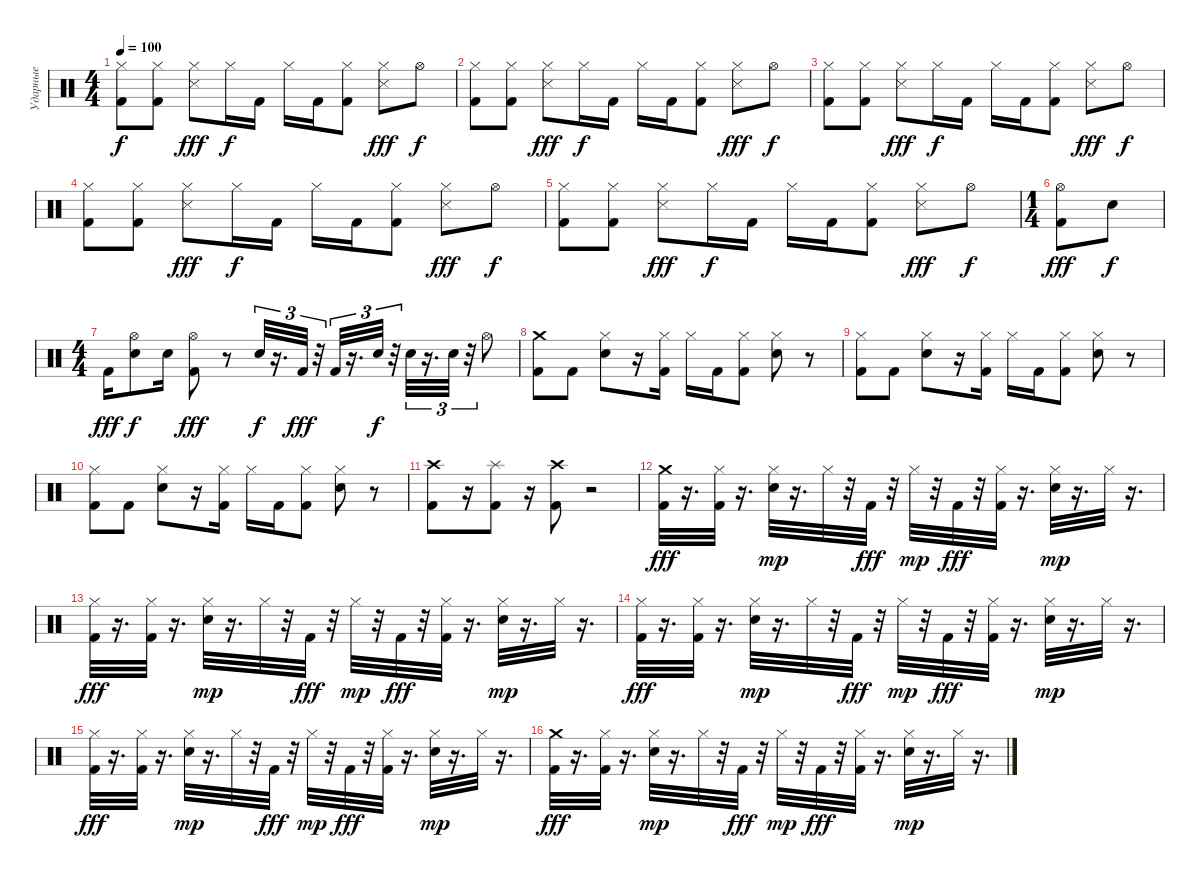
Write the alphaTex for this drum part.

\track ("Ударные" "Ударные") {instrument percussion}
\staff {score}
\articulation defaults
\ts (4 4)
\tempo 100
\clef neutral
\ks c
("Hi-Hat (closed)" "Kick (hit) 2").8{dy f} ("Hi-Hat (closed)" "Kick (hit) 2").8 ("Hi-Hat (closed)" "Snare (side stick) 3").8{dy fff} "Hi-Hat (closed)".16{dy f} "Kick (hit) 2".16 "Hi-Hat (closed)".16 "Kick (hit) 2".16 ("Hi-Hat (closed)" "Kick (hit) 2").8 ("Hi-Hat (closed)" "Snare (side stick) 3").8{dy fff} "Hi-Hat (open)".8{dy f} |
("Hi-Hat (closed)" "Kick (hit) 2").8 ("Hi-Hat (closed)" "Kick (hit) 2").8 ("Hi-Hat (closed)" "Snare (side stick) 3").8{dy fff} "Hi-Hat (closed)".16{dy f} "Kick (hit) 2".16 "Hi-Hat (closed)".16 "Kick (hit) 2".16 ("Hi-Hat (closed)" "Kick (hit) 2").8 ("Hi-Hat (closed)" "Snare (side stick) 3").8{dy fff} "Hi-Hat (open)".8{dy f} |
("Hi-Hat (closed)" "Kick (hit) 2").8 ("Hi-Hat (closed)" "Kick (hit) 2").8 ("Hi-Hat (closed)" "Snare (side stick) 3").8{dy fff} "Hi-Hat (closed)".16{dy f} "Kick (hit) 2".16 "Hi-Hat (closed)".16 "Kick (hit) 2".16 ("Hi-Hat (closed)" "Kick (hit) 2").8 ("Hi-Hat (closed)" "Snare (side stick) 3").8{dy fff} "Hi-Hat (open)".8{dy f} |
("Hi-Hat (closed)" "Kick (hit) 2").8 ("Hi-Hat (closed)" "Kick (hit) 2").8 ("Hi-Hat (closed)" "Snare (side stick) 3").8{dy fff} "Hi-Hat (closed)".16{dy f} "Kick (hit) 2".16 "Hi-Hat (closed)".16 "Kick (hit) 2".16 ("Hi-Hat (closed)" "Kick (hit) 2").8 ("Hi-Hat (closed)" "Snare (side stick) 3").8{dy fff} "Hi-Hat (open)".8{dy f} |
("Hi-Hat (closed)" "Kick (hit) 2").8 ("Hi-Hat (closed)" "Kick (hit) 2").8 ("Hi-Hat (closed)" "Snare (side stick) 3").8{dy fff} "Hi-Hat (closed)".16{dy f} "Kick (hit) 2".16 "Hi-Hat (closed)".16 "Kick (hit) 2".16 ("Hi-Hat (closed)" "Kick (hit) 2").8 ("Hi-Hat (closed)" "Snare (side stick) 3").8{dy fff} "Hi-Hat (open)".8{dy f} |
\ts (1 4)
("Hi-Hat (open)" "Kick (hit) 2").8{dy fff} "Electric Snare (hit)".8{dy f} |
\ts (4 4)
"Kick (hit) 2".16{dy fff} ("Hi-Hat (open)" "Electric Snare (hit)").8{dy f} "Electric Snare (hit)".16 ("Hi-Hat (open)" "Kick (hit) 2").8{dy fff} r.8 "Electric Snare (hit)".32{tu (3 2) dy f} r.16{d tu (3 2)} "Kick (hit) 2".32{tu (3 2) dy fff} r.32{tu (3 2)} "Kick (hit) 2".32{tu (3 2)} r.16{d tu (3 2)} "Electric Snare (hit)".32{tu (3 2) dy f} r.32{tu (3 2)} "Electric Snare (hit)".32{tu (3 2)} r.16{d tu (3 2)} "Electric Snare (hit)".32{tu (3 2)} r.32{tu (3 2)} "Hi-Hat (open)".8 |
("Crash medium (hit)" "Kick (hit) 2").8 "Kick (hit) 2".8 ("Hi-Hat (closed)" "Electric Snare (hit)").8 r.16 ("Hi-Hat (closed)" "Kick (hit) 2").16 "Hi-Hat (closed)".16 "Kick (hit) 2".16 ("Hi-Hat (closed)" "Kick (hit) 2").8 ("Hi-Hat (closed)" "Electric Snare (hit)").8 r.8 |
("Hi-Hat (closed)" "Kick (hit) 2").8 "Kick (hit) 2".8 ("Hi-Hat (closed)" "Electric Snare (hit)").8 r.16 ("Hi-Hat (closed)" "Kick (hit) 2").16 "Hi-Hat (closed)".16 "Kick (hit) 2".16 ("Hi-Hat (closed)" "Kick (hit) 2").8 ("Hi-Hat (closed)" "Electric Snare (hit)").8 r.8 |
("Hi-Hat (closed)" "Kick (hit) 2").8 "Kick (hit) 2".8 ("Hi-Hat (closed)" "Electric Snare (hit)").8 r.16 ("Hi-Hat (closed)" "Kick (hit) 2").16 "Hi-Hat (closed)".16 "Kick (hit) 2".16 ("Hi-Hat (closed)" "Kick (hit) 2").8 ("Hi-Hat (closed)" "Electric Snare (hit)").8 r.8 |
("Crash high (hit)" "Kick (hit) 2").8 r.16 ("Splash (hit)" "Kick (hit) 2").8 r.16 ("Crash high (hit)" "Kick (hit) 2").8 r.2 |
("Crash medium (hit)" "Kick (hit) 2").32{dy fff} r.16{d} ("Hi-Hat (closed)" "Kick (hit) 2").32 r.16{d} ("Hi-Hat (closed)" "Electric Snare (hit)").32{dy mp} r.16{d} "Hi-Hat (closed)".32 r.32 "Kick (hit) 2".32{dy fff} r.32 "Hi-Hat (closed)".32{dy mp} r.32 "Kick (hit) 2".32{dy fff} r.32 ("Hi-Hat (closed)" "Kick (hit) 2").32 r.16{d} ("Hi-Hat (closed)" "Electric Snare (hit)").32{dy mp} r.16{d} "Hi-Hat (closed)".32 r.16{d} |
("Hi-Hat (closed)" "Kick (hit) 2").32{dy fff} r.16{d} ("Hi-Hat (closed)" "Kick (hit) 2").32 r.16{d} ("Hi-Hat (closed)" "Electric Snare (hit)").32{dy mp} r.16{d} "Hi-Hat (closed)".32 r.32 "Kick (hit) 2".32{dy fff} r.32 "Hi-Hat (closed)".32{dy mp} r.32 "Kick (hit) 2".32{dy fff} r.32 ("Hi-Hat (closed)" "Kick (hit) 2").32 r.16{d} ("Hi-Hat (closed)" "Electric Snare (hit)").32{dy mp} r.16{d} "Hi-Hat (closed)".32 r.16{d} |
("Hi-Hat (closed)" "Kick (hit) 2").32{dy fff} r.16{d} ("Hi-Hat (closed)" "Kick (hit) 2").32 r.16{d} ("Hi-Hat (closed)" "Electric Snare (hit)").32{dy mp} r.16{d} "Hi-Hat (closed)".32 r.32 "Kick (hit) 2".32{dy fff} r.32 "Hi-Hat (closed)".32{dy mp} r.32 "Kick (hit) 2".32{dy fff} r.32 ("Hi-Hat (closed)" "Kick (hit) 2").32 r.16{d} ("Hi-Hat (closed)" "Electric Snare (hit)").32{dy mp} r.16{d} "Hi-Hat (closed)".32 r.16{d} |
("Hi-Hat (closed)" "Kick (hit) 2").32{dy fff} r.16{d} ("Hi-Hat (closed)" "Kick (hit) 2").32 r.16{d} ("Hi-Hat (closed)" "Electric Snare (hit)").32{dy mp} r.16{d} "Hi-Hat (closed)".32 r.32 "Kick (hit) 2".32{dy fff} r.32 "Hi-Hat (closed)".32{dy mp} r.32 "Kick (hit) 2".32{dy fff} r.32 ("Hi-Hat (closed)" "Kick (hit) 2").32 r.16{d} ("Hi-Hat (closed)" "Electric Snare (hit)").32{dy mp} r.16{d} "Hi-Hat (closed)".32 r.16{d} |
("Crash medium (hit)" "Kick (hit) 2").32{dy fff} r.16{d} ("Hi-Hat (closed)" "Kick (hit) 2").32 r.16{d} ("Hi-Hat (closed)" "Electric Snare (hit)").32{dy mp} r.16{d} "Hi-Hat (closed)".32 r.32 "Kick (hit) 2".32{dy fff} r.32 "Hi-Hat (closed)".32{dy mp} r.32 "Kick (hit) 2".32{dy fff} r.32 ("Hi-Hat (closed)" "Kick (hit) 2").32 r.16{d} ("Hi-Hat (closed)" "Electric Snare (hit)").32{dy mp} r.16{d} "Hi-Hat (closed)".32 r.16{d}
